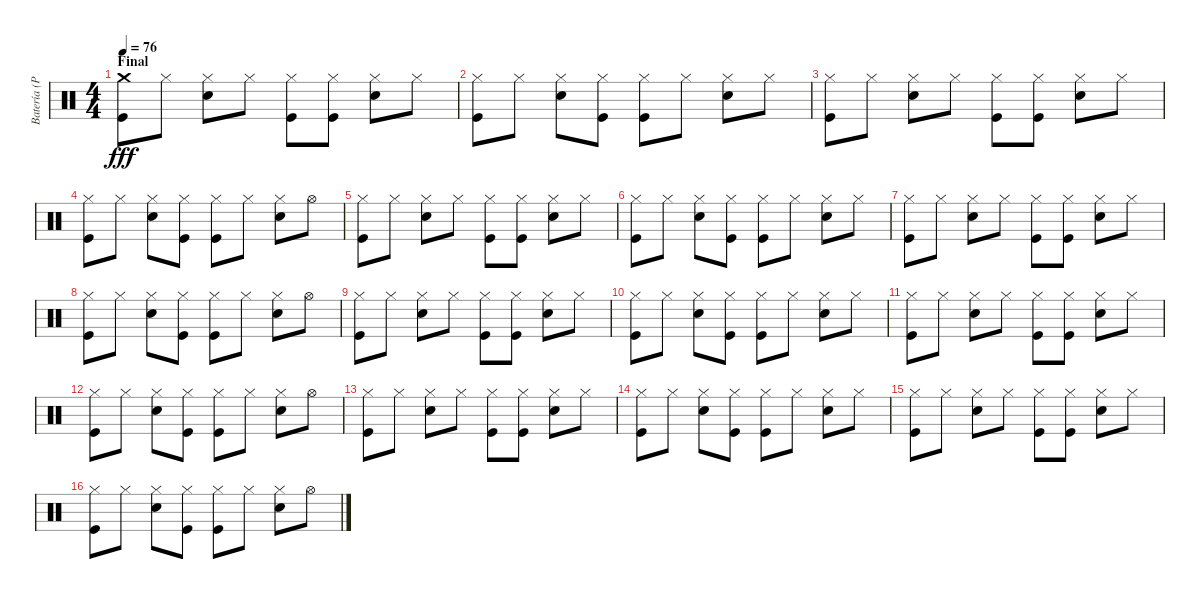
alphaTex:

\track ("Batería (Phill Selway)" "Batería (P") {instrument percussion}
\staff {score}
\articulation defaults
\ts (4 4)
\section ("" "Final")
\tempo 76
\clef neutral
\ks c
("Crash medium (hit)" "Kick (hit)").8{dy fff} "Hi-Hat (closed)".8 ("Hi-Hat (closed)" "Snare (hit) 2").8 "Hi-Hat (closed)".8 ("Hi-Hat (closed)" "Kick (hit)").8 ("Hi-Hat (closed)" "Kick (hit)").8 ("Hi-Hat (closed)" "Snare (hit) 2").8 "Hi-Hat (closed)".8 |
("Hi-Hat (closed)" "Kick (hit)").8 "Hi-Hat (closed)".8 ("Hi-Hat (closed)" "Snare (hit) 2").8 ("Hi-Hat (closed)" "Kick (hit)").8 ("Hi-Hat (closed)" "Kick (hit)").8 "Hi-Hat (closed)".8 ("Hi-Hat (closed)" "Snare (hit) 2").8 "Hi-Hat (closed)".8 |
("Hi-Hat (closed)" "Kick (hit)").8 "Hi-Hat (closed)".8 ("Hi-Hat (closed)" "Snare (hit) 2").8 "Hi-Hat (closed)".8 ("Hi-Hat (closed)" "Kick (hit)").8 ("Hi-Hat (closed)" "Kick (hit)").8 ("Hi-Hat (closed)" "Snare (hit) 2").8 "Hi-Hat (closed)".8 |
("Hi-Hat (closed)" "Kick (hit)").8 "Hi-Hat (closed)".8 ("Hi-Hat (closed)" "Snare (hit) 2").8 ("Hi-Hat (closed)" "Kick (hit)").8 ("Hi-Hat (closed)" "Kick (hit)").8 "Hi-Hat (closed)".8 ("Hi-Hat (closed)" "Snare (hit) 2").8 "Hi-Hat (open)".8 |
("Hi-Hat (closed)" "Kick (hit)").8 "Hi-Hat (closed)".8 ("Hi-Hat (closed)" "Snare (hit) 2").8 "Hi-Hat (closed)".8 ("Hi-Hat (closed)" "Kick (hit)").8 ("Hi-Hat (closed)" "Kick (hit)").8 ("Hi-Hat (closed)" "Snare (hit) 2").8 "Hi-Hat (closed)".8 |
("Hi-Hat (closed)" "Kick (hit)").8 "Hi-Hat (closed)".8 ("Hi-Hat (closed)" "Snare (hit) 2").8 ("Hi-Hat (closed)" "Kick (hit)").8 ("Hi-Hat (closed)" "Kick (hit)").8 "Hi-Hat (closed)".8 ("Hi-Hat (closed)" "Snare (hit) 2").8 "Hi-Hat (closed)".8 |
("Hi-Hat (closed)" "Kick (hit)").8 "Hi-Hat (closed)".8 ("Hi-Hat (closed)" "Snare (hit) 2").8 "Hi-Hat (closed)".8 ("Hi-Hat (closed)" "Kick (hit)").8 ("Hi-Hat (closed)" "Kick (hit)").8 ("Hi-Hat (closed)" "Snare (hit) 2").8 "Hi-Hat (closed)".8 |
("Hi-Hat (closed)" "Kick (hit)").8 "Hi-Hat (closed)".8 ("Hi-Hat (closed)" "Snare (hit) 2").8 ("Hi-Hat (closed)" "Kick (hit)").8 ("Hi-Hat (closed)" "Kick (hit)").8 "Hi-Hat (closed)".8 ("Hi-Hat (closed)" "Snare (hit) 2").8 "Hi-Hat (open)".8 |
("Hi-Hat (closed)" "Kick (hit)").8 "Hi-Hat (closed)".8 ("Hi-Hat (closed)" "Snare (hit) 2").8 "Hi-Hat (closed)".8 ("Hi-Hat (closed)" "Kick (hit)").8 ("Hi-Hat (closed)" "Kick (hit)").8 ("Hi-Hat (closed)" "Snare (hit) 2").8 "Hi-Hat (closed)".8 |
("Hi-Hat (closed)" "Kick (hit)").8 "Hi-Hat (closed)".8 ("Hi-Hat (closed)" "Snare (hit) 2").8 ("Hi-Hat (closed)" "Kick (hit)").8 ("Hi-Hat (closed)" "Kick (hit)").8 "Hi-Hat (closed)".8 ("Hi-Hat (closed)" "Snare (hit) 2").8 "Hi-Hat (closed)".8 |
("Hi-Hat (closed)" "Kick (hit)").8 "Hi-Hat (closed)".8 ("Hi-Hat (closed)" "Snare (hit) 2").8 "Hi-Hat (closed)".8 ("Hi-Hat (closed)" "Kick (hit)").8 ("Hi-Hat (closed)" "Kick (hit)").8 ("Hi-Hat (closed)" "Snare (hit) 2").8 "Hi-Hat (closed)".8 |
("Hi-Hat (closed)" "Kick (hit)").8 "Hi-Hat (closed)".8 ("Hi-Hat (closed)" "Snare (hit) 2").8 ("Hi-Hat (closed)" "Kick (hit)").8 ("Hi-Hat (closed)" "Kick (hit)").8 "Hi-Hat (closed)".8 ("Hi-Hat (closed)" "Snare (hit) 2").8 "Hi-Hat (open)".8 |
("Hi-Hat (closed)" "Kick (hit)").8 "Hi-Hat (closed)".8 ("Hi-Hat (closed)" "Snare (hit) 2").8 "Hi-Hat (closed)".8 ("Hi-Hat (closed)" "Kick (hit)").8 ("Hi-Hat (closed)" "Kick (hit)").8 ("Hi-Hat (closed)" "Snare (hit) 2").8 "Hi-Hat (closed)".8 |
("Hi-Hat (closed)" "Kick (hit)").8 "Hi-Hat (closed)".8 ("Hi-Hat (closed)" "Snare (hit) 2").8 ("Hi-Hat (closed)" "Kick (hit)").8 ("Hi-Hat (closed)" "Kick (hit)").8 "Hi-Hat (closed)".8 ("Hi-Hat (closed)" "Snare (hit) 2").8 "Hi-Hat (closed)".8 |
("Hi-Hat (closed)" "Kick (hit)").8 "Hi-Hat (closed)".8 ("Hi-Hat (closed)" "Snare (hit) 2").8 "Hi-Hat (closed)".8 ("Hi-Hat (closed)" "Kick (hit)").8 ("Hi-Hat (closed)" "Kick (hit)").8 ("Hi-Hat (closed)" "Snare (hit) 2").8 "Hi-Hat (closed)".8 |
("Hi-Hat (closed)" "Kick (hit)").8 "Hi-Hat (closed)".8 ("Hi-Hat (closed)" "Snare (hit) 2").8 ("Hi-Hat (closed)" "Kick (hit)").8 ("Hi-Hat (closed)" "Kick (hit)").8 "Hi-Hat (closed)".8 ("Hi-Hat (closed)" "Snare (hit) 2").8 "Hi-Hat (open)".8
